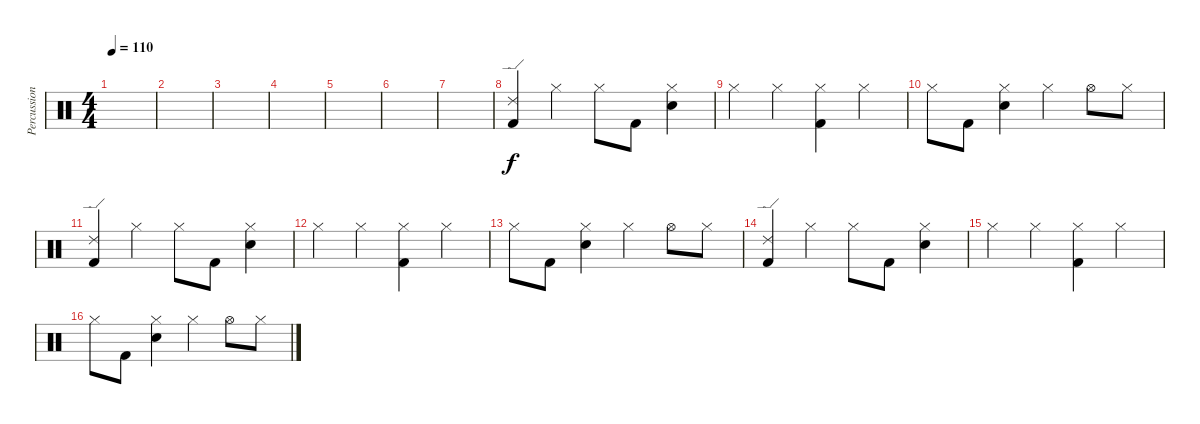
\track ("Percussion" "Percussion") {instrument percussion}
\staff {score}
\articulation defaults
\ts (4 4)
\tempo 110
\clef neutral
\ks c
|
|
|
|
|
|
|
("Ride (edge) 2" "Kick (hit) 2").4 "Hi-Hat (closed)".4 "Hi-Hat (closed)".8 "Kick (hit) 2".8 ("Hi-Hat (closed)" "Electric Snare (hit)").4 |
"Hi-Hat (closed)".4 "Hi-Hat (closed)".4 ("Hi-Hat (closed)" "Kick (hit) 2").4 "Hi-Hat (closed)".4 |
"Hi-Hat (closed)".8 "Kick (hit) 2".8 ("Hi-Hat (closed)" "Electric Snare (hit)").4 "Hi-Hat (closed)".4 "Hi-Hat (open)".8 "Hi-Hat (closed)".8 |
("Ride (edge) 2" "Kick (hit) 2").4 "Hi-Hat (closed)".4 "Hi-Hat (closed)".8 "Kick (hit) 2".8 ("Hi-Hat (closed)" "Electric Snare (hit)").4 |
"Hi-Hat (closed)".4 "Hi-Hat (closed)".4 ("Hi-Hat (closed)" "Kick (hit) 2").4 "Hi-Hat (closed)".4 |
"Hi-Hat (closed)".8 "Kick (hit) 2".8 ("Hi-Hat (closed)" "Electric Snare (hit)").4 "Hi-Hat (closed)".4 "Hi-Hat (open)".8 "Hi-Hat (closed)".8 |
("Ride (edge) 2" "Kick (hit) 2").4 "Hi-Hat (closed)".4 "Hi-Hat (closed)".8 "Kick (hit) 2".8 ("Hi-Hat (closed)" "Electric Snare (hit)").4 |
"Hi-Hat (closed)".4 "Hi-Hat (closed)".4 ("Hi-Hat (closed)" "Kick (hit) 2").4 "Hi-Hat (closed)".4 |
"Hi-Hat (closed)".8 "Kick (hit) 2".8 ("Hi-Hat (closed)" "Electric Snare (hit)").4 "Hi-Hat (closed)".4 "Hi-Hat (open)".8 "Hi-Hat (closed)".8
